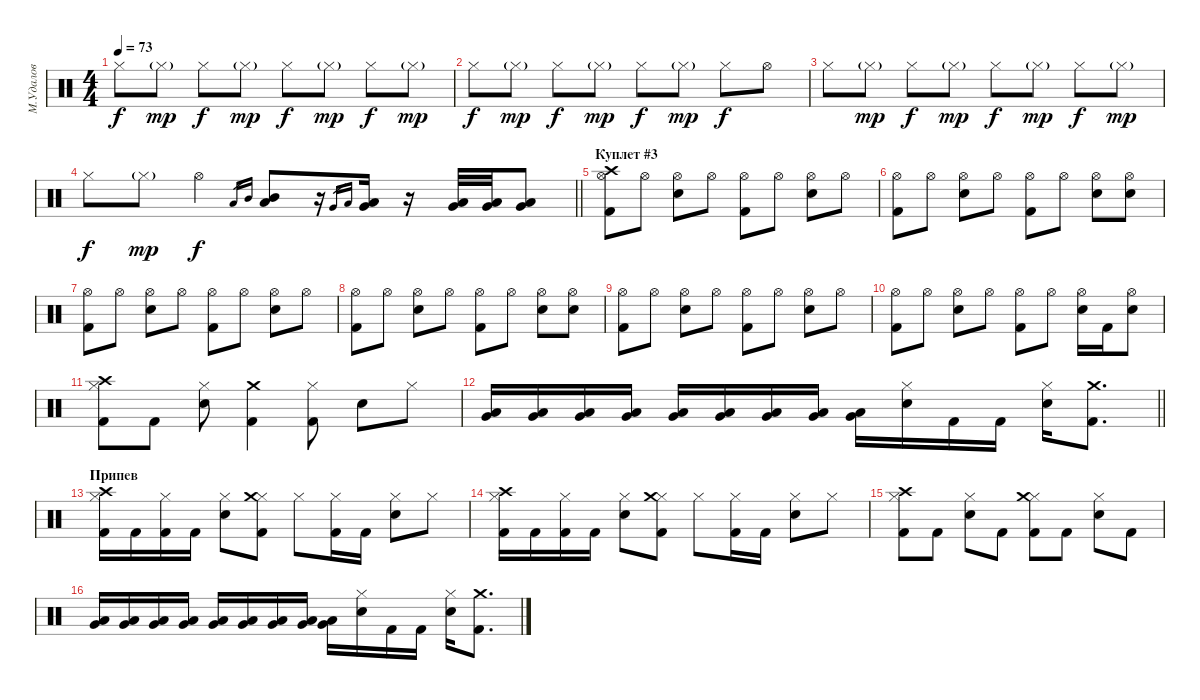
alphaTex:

\track ("М.Удалов" "М.Удалов") {instrument percussion}
\staff {score}
\articulation defaults
\ts (4 4)
\tempo 73
\clef neutral
\ks c "Hi-Hat (closed)".8{dy f} "Hi-Hat (closed)"{g}.8{dy mp} "Hi-Hat (closed)".8{dy f} "Hi-Hat (closed)"{g}.8{dy mp} "Hi-Hat (closed)".8{dy f} "Hi-Hat (closed)"{g}.8{dy mp} "Hi-Hat (closed)".8{dy f} "Hi-Hat (closed)"{g}.8{dy mp}
|
"Hi-Hat (closed)".8{dy f} "Hi-Hat (closed)"{g}.8{dy mp} "Hi-Hat (closed)".8{dy f} "Hi-Hat (closed)"{g}.8{dy mp} "Hi-Hat (closed)".8{dy f} "Hi-Hat (closed)"{g}.8{dy mp} "Hi-Hat (closed)".8{dy f} "Hi-Hat (open)".8 |
"Hi-Hat (closed)".8 "Hi-Hat (closed)"{g}.8{dy mp} "Hi-Hat (closed)".8{dy f} "Hi-Hat (closed)"{g}.8{dy mp} "Hi-Hat (closed)".8{dy f} "Hi-Hat (closed)"{g}.8{dy mp} "Hi-Hat (closed)".8{dy f} "Hi-Hat (closed)"{g}.8{dy mp} |
\barLineRight lightlight "Hi-Hat (closed)".8{dy f} "Hi-Hat (closed)"{g}.8{dy mp} "Hi-Hat (open)".4{dy f} "Low Tom (hit)".16{gr} "Mid Tom (hit)".16{gr}
("Low Tom (hit)" "Mid Tom (hit)").8 r.16 "Very Low Tom (hit)".16{gr} "Low Tom (hit)".16{gr} ("Very Low Tom (hit)" "Low Tom (hit)").16 r.16 ("Low Floor Tom (hit)" "Very Low Tom (hit)").32 ("Low Floor Tom (hit)" "Very Low Tom (hit)").32 ("Low Floor Tom (hit)" "Very Low Tom (hit)").8 |
\section ("" "Куплет #3")
("Kick (hit) 2" "Hi-Hat (open)" "Crash high (hit)").8 "Hi-Hat (open)".8 ("Electric Snare (hit)" "Hi-Hat (open)").8 "Hi-Hat (open)".8 ("Kick (hit) 2" "Hi-Hat (open)").8 "Hi-Hat (open)".8 ("Electric Snare (hit)" "Hi-Hat (open)").8 "Hi-Hat (open)".8 |
("Kick (hit) 2" "Hi-Hat (open)").8 "Hi-Hat (open)".8 ("Electric Snare (hit)" "Hi-Hat (open)").8 "Hi-Hat (open)".8 ("Kick (hit) 2" "Hi-Hat (open)").8 "Hi-Hat (open)".8 ("Electric Snare (hit)" "Hi-Hat (open)").8 ("Electric Snare (hit)" "Hi-Hat (open)").8 |
("Kick (hit) 2" "Hi-Hat (open)").8 "Hi-Hat (open)".8 ("Electric Snare (hit)" "Hi-Hat (open)").8 "Hi-Hat (open)".8 ("Kick (hit) 2" "Hi-Hat (open)").8 "Hi-Hat (open)".8 ("Electric Snare (hit)" "Hi-Hat (open)").8 "Hi-Hat (open)".8 |
("Kick (hit) 2" "Hi-Hat (open)").8 "Hi-Hat (open)".8 ("Electric Snare (hit)" "Hi-Hat (open)").8 "Hi-Hat (open)".8 ("Kick (hit) 2" "Hi-Hat (open)").8 "Hi-Hat (open)".8 ("Electric Snare (hit)" "Hi-Hat (open)").8 ("Electric Snare (hit)" "Hi-Hat (open)").8 |
("Kick (hit) 2" "Hi-Hat (open)").8 "Hi-Hat (open)".8 ("Electric Snare (hit)" "Hi-Hat (open)").8 "Hi-Hat (open)".8 ("Kick (hit) 2" "Hi-Hat (open)").8 "Hi-Hat (open)".8 ("Electric Snare (hit)" "Hi-Hat (open)").8 "Hi-Hat (open)".8 |
("Kick (hit) 2" "Hi-Hat (open)").8 "Hi-Hat (open)".8 ("Electric Snare (hit)" "Hi-Hat (open)").8 "Hi-Hat (open)".8 ("Kick (hit) 2" "Hi-Hat (open)").8 "Hi-Hat (open)".8 ("Electric Snare (hit)" "Hi-Hat (open)").16 "Kick (hit) 2".16 ("Electric Snare (hit)" "Hi-Hat (open)").8 |
("Kick (hit) 2" "Hi-Hat (closed)" "Crash high (hit)").8 "Kick (hit) 2".8 ("Snare (hit) 2" "Hi-Hat (closed)").8 ("Kick (hit) 2" "Crash medium (hit)").4 ("Kick (hit) 2" "Hi-Hat (closed)").8 "Snare (hit) 2".8 "Hi-Hat (closed)".8 |
\barLineRight lightlight
("Very Low Tom (hit)" "Low Tom (hit)").16 ("Very Low Tom (hit)" "Low Tom (hit)").16 ("Very Low Tom (hit)" "Low Tom (hit)").16 ("Very Low Tom (hit)" "Low Tom (hit)").16 ("Very Low Tom (hit)" "Low Tom (hit)").16 ("Very Low Tom (hit)" "Low Tom (hit)").16 ("Very Low Tom (hit)" "Low Tom (hit)").16 ("Very Low Tom (hit)" "Low Tom (hit)").16 ("Very Low Tom (hit)" "Low Tom (hit)").16 ("Snare (hit) 2" "Hi-Hat (closed)").16 "Kick (hit) 2".16 "Kick (hit) 2".16 ("Snare (hit) 2" "Hi-Hat (closed)").16 ("Kick (hit) 2" "Crash medium (hit)").8{d} |
\section ("" "Припев")
("Kick (hit) 2" "Hi-Hat (closed)" "Crash high (hit)").16 "Kick (hit) 2".16 ("Kick (hit) 2" "Hi-Hat (closed)").16 "Kick (hit) 2".16 ("Snare (hit) 2" "Hi-Hat (closed)").8 ("Kick (hit) 2" "Hi-Hat (closed)" "Crash medium (hit)").8 "Hi-Hat (closed)".8 ("Kick (hit) 2" "Hi-Hat (closed)").16 "Kick (hit) 2".16 ("Snare (hit) 2" "Hi-Hat (closed)").8 "Hi-Hat (closed)".8 |
("Kick (hit) 2" "Hi-Hat (closed)" "Crash high (hit)").16 "Kick (hit) 2".16 ("Kick (hit) 2" "Hi-Hat (closed)").16 "Kick (hit) 2".16 ("Snare (hit) 2" "Hi-Hat (closed)").8 ("Kick (hit) 2" "Hi-Hat (closed)" "Crash medium (hit)").8 "Hi-Hat (closed)".8 ("Kick (hit) 2" "Hi-Hat (closed)").16 "Kick (hit) 2".16 ("Snare (hit) 2" "Hi-Hat (closed)").8 "Hi-Hat (closed)".8 |
("Kick (hit) 2" "Hi-Hat (closed)" "Crash high (hit)").8 "Kick (hit) 2".8 ("Snare (hit) 2" "Hi-Hat (closed)").8 "Kick (hit) 2".8 ("Kick (hit) 2" "Hi-Hat (closed)" "Crash medium (hit)").8 "Kick (hit) 2".8 ("Snare (hit) 2" "Hi-Hat (closed)").8 "Kick (hit) 2".8 |
("Very Low Tom (hit)" "Low Tom (hit)").16 ("Very Low Tom (hit)" "Low Tom (hit)").16 ("Very Low Tom (hit)" "Low Tom (hit)").16 ("Very Low Tom (hit)" "Low Tom (hit)").16 ("Very Low Tom (hit)" "Low Tom (hit)").16 ("Very Low Tom (hit)" "Low Tom (hit)").16 ("Very Low Tom (hit)" "Low Tom (hit)").16 ("Very Low Tom (hit)" "Low Tom (hit)").16 ("Very Low Tom (hit)" "Low Tom (hit)").16 ("Snare (hit) 2" "Hi-Hat (closed)").16 "Kick (hit) 2".16 "Kick (hit) 2".16 ("Snare (hit) 2" "Hi-Hat (closed)").16 ("Kick (hit) 2" "Crash medium (hit)").8{d}
